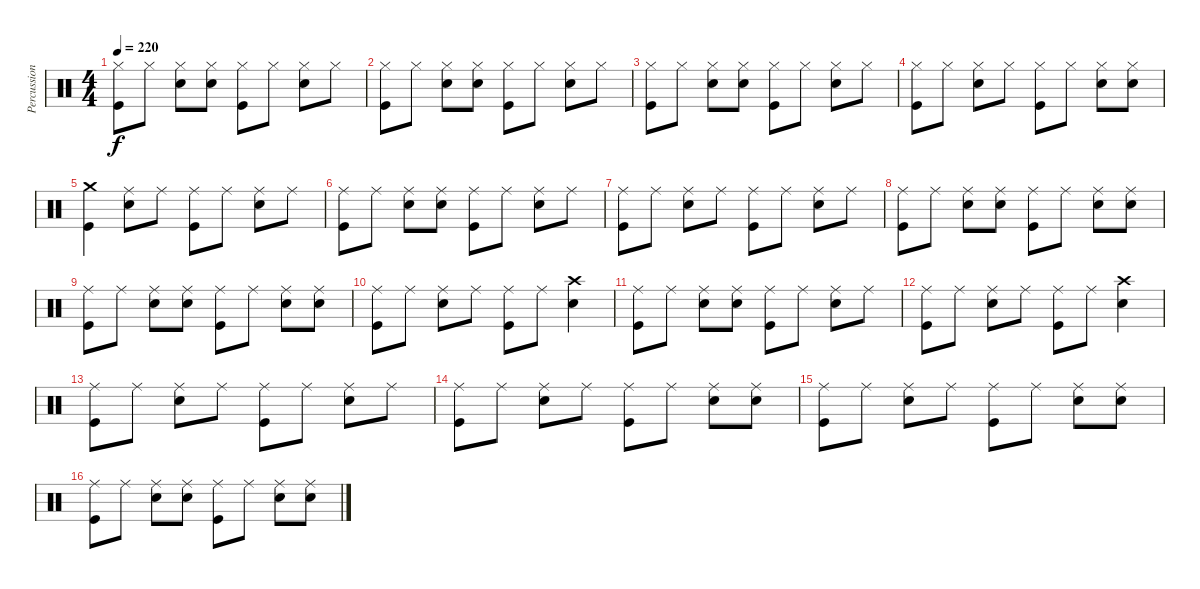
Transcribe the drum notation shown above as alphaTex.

\track ("Percussion" "Percussion") {instrument percussion}
\staff {score}
\articulation defaults
\ts (4 4)
\tempo 220
\clef neutral
\ks c
("Kick (hit)" "Hi-Hat (closed)").8{dy f} "Hi-Hat (closed)".8 ("Hi-Hat (closed)" "Snare (hit) 2").8 ("Hi-Hat (closed)" "Snare (hit) 2").8 ("Kick (hit)" "Hi-Hat (closed)").8 "Hi-Hat (closed)".8 ("Hi-Hat (closed)" "Snare (hit) 2").8 "Hi-Hat (closed)".8 |
("Kick (hit)" "Hi-Hat (closed)").8 "Hi-Hat (closed)".8 ("Hi-Hat (closed)" "Snare (hit) 2").8 ("Hi-Hat (closed)" "Snare (hit) 2").8 ("Kick (hit)" "Hi-Hat (closed)").8 "Hi-Hat (closed)".8 ("Hi-Hat (closed)" "Snare (hit) 2").8 "Hi-Hat (closed)".8 |
("Kick (hit)" "Hi-Hat (closed)").8 "Hi-Hat (closed)".8 ("Hi-Hat (closed)" "Snare (hit) 2").8 ("Hi-Hat (closed)" "Snare (hit) 2").8 ("Kick (hit)" "Hi-Hat (closed)").8 "Hi-Hat (closed)".8 ("Hi-Hat (closed)" "Snare (hit) 2").8 "Hi-Hat (closed)".8 |
("Kick (hit)" "Hi-Hat (closed)").8 "Hi-Hat (closed)".8 ("Hi-Hat (closed)" "Snare (hit) 2").8 "Hi-Hat (closed)".8 ("Kick (hit)" "Hi-Hat (closed)").8 "Hi-Hat (closed)".8 ("Hi-Hat (closed)" "Snare (hit) 2").8 ("Hi-Hat (closed)" "Snare (hit) 2").8 |
("Kick (hit)" "Crash medium (hit)").4 ("Ride (middle)" "Snare (hit) 2").8 "Ride (middle)".8 ("Kick (hit)" "Ride (middle)").8 "Ride (middle)".8 ("Ride (middle)" "Snare (hit) 2").8 "Ride (middle)".8 |
("Kick (hit)" "Ride (middle)").8 "Ride (middle)".8 ("Ride (middle)" "Snare (hit) 2").8 ("Ride (middle)" "Snare (hit) 2").8 ("Kick (hit)" "Ride (middle)").8 "Ride (middle)".8 ("Ride (middle)" "Snare (hit) 2").8 "Ride (middle)".8 |
("Kick (hit)" "Ride (middle)").8 "Ride (middle)".8 ("Ride (middle)" "Snare (hit) 2").8 "Ride (middle)".8 ("Kick (hit)" "Ride (middle)").8 "Ride (middle)".8 ("Ride (middle)" "Snare (hit) 2").8 "Ride (middle)".8 |
("Kick (hit)" "Ride (middle)").8 "Ride (middle)".8 ("Ride (middle)" "Snare (hit) 2").8 ("Ride (middle)" "Snare (hit) 2").8 ("Kick (hit)" "Ride (middle)").8 "Ride (middle)".8 ("Ride (middle)" "Snare (hit) 2").8 ("Ride (middle)" "Snare (hit) 2").8 |
("Kick (hit)" "Ride (middle)").8 "Ride (middle)".8 ("Ride (middle)" "Snare (hit) 2").8 ("Ride (middle)" "Snare (hit) 2").8 ("Kick (hit)" "Ride (middle)").8 "Ride (middle)".8 ("Ride (middle)" "Snare (hit) 2").8 ("Ride (middle)" "Snare (hit) 2").8 |
("Kick (hit)" "Ride (middle)").8 "Ride (middle)".8 ("Ride (middle)" "Snare (hit) 2").8 "Ride (middle)".8 ("Kick (hit)" "Ride (middle)").8 "Ride (middle)".8 ("Crash high (hit)" "Snare (hit) 2").4 |
("Kick (hit)" "Ride (middle)").8 "Ride (middle)".8 ("Ride (middle)" "Snare (hit) 2").8 ("Ride (middle)" "Snare (hit) 2").8 ("Kick (hit)" "Ride (middle)").8 "Ride (middle)".8 ("Ride (middle)" "Snare (hit) 2").8 "Ride (middle)".8 |
("Kick (hit)" "Ride (middle)").8 "Ride (middle)".8 ("Ride (middle)" "Snare (hit) 2").8 "Ride (middle)".8 ("Kick (hit)" "Ride (middle)").8 "Ride (middle)".8 ("Crash high (hit)" "Snare (hit) 2").4 |
("Kick (hit)" "Ride (middle)").8 "Ride (middle)".8 ("Ride (middle)" "Snare (hit) 2").8 "Ride (middle)".8 ("Kick (hit)" "Ride (middle)").8 "Ride (middle)".8 ("Ride (middle)" "Snare (hit) 2").8 "Ride (middle)".8 |
("Kick (hit)" "Ride (middle)").8 "Ride (middle)".8 ("Ride (middle)" "Snare (hit) 2").8 "Ride (middle)".8 ("Kick (hit)" "Ride (middle)").8 "Ride (middle)".8 ("Ride (middle)" "Snare (hit) 2").8 ("Ride (middle)" "Snare (hit) 2").8 |
("Kick (hit)" "Ride (middle)").8 "Ride (middle)".8 ("Ride (middle)" "Snare (hit) 2").8 "Ride (middle)".8 ("Kick (hit)" "Ride (middle)").8 "Ride (middle)".8 ("Ride (middle)" "Snare (hit) 2").8 ("Ride (middle)" "Snare (hit) 2").8 |
("Kick (hit)" "Ride (middle)").8 "Ride (middle)".8 ("Ride (middle)" "Snare (hit) 2").8 ("Ride (middle)" "Snare (hit) 2").8 ("Kick (hit)" "Ride (middle)").8 "Ride (middle)".8 ("Ride (middle)" "Snare (hit) 2").8 ("Ride (middle)" "Snare (hit) 2").8
